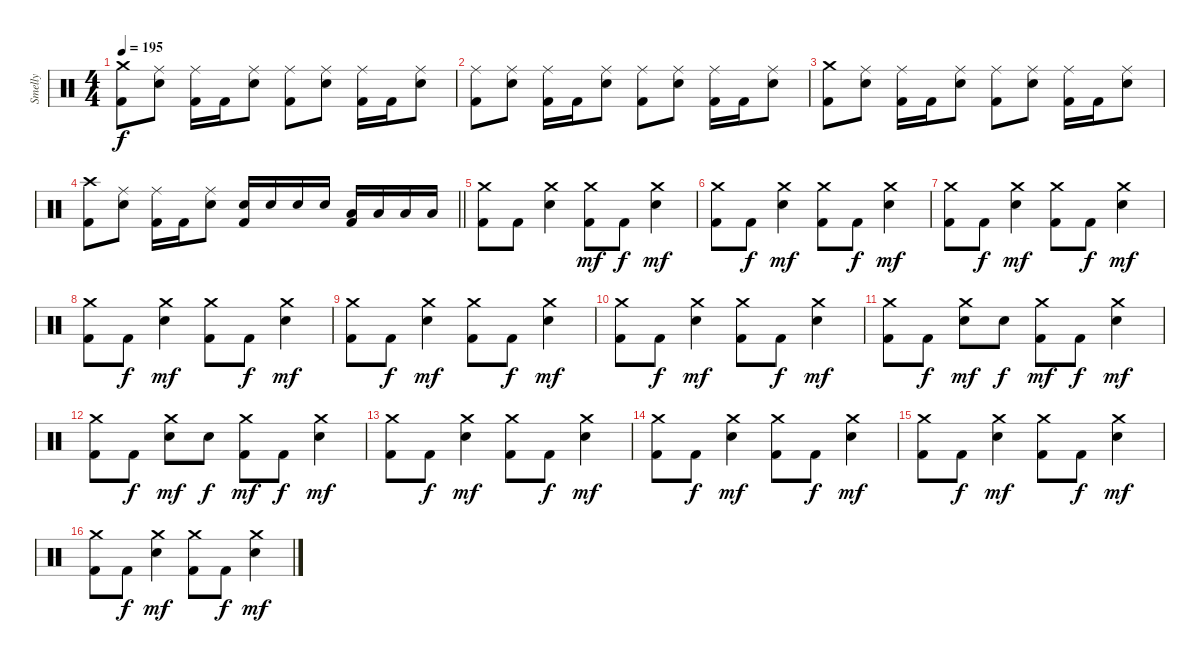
\track ("Smelly" "Smelly") {instrument percussion}
\staff {score}
\articulation defaults
\ts (4 4)
\tempo 195
\clef neutral
\ks c
("Crash medium (hit)" "Kick (hit) 2").8{dy f} ("Ride (middle)" "Electric Snare (hit)").8 ("Ride (middle)" "Kick (hit) 2").16 "Kick (hit) 2".16 ("Ride (middle)" "Electric Snare (hit)").8 ("Ride (middle)" "Kick (hit) 2").8 ("Ride (middle)" "Electric Snare (hit)").8 ("Ride (middle)" "Kick (hit) 2").16 "Kick (hit) 2".16 ("Ride (middle)" "Electric Snare (hit)").8 |
("Ride (middle)" "Kick (hit) 2").8 ("Ride (middle)" "Electric Snare (hit)").8 ("Ride (middle)" "Kick (hit) 2").16 "Kick (hit) 2".16 ("Ride (middle)" "Electric Snare (hit)").8 ("Ride (middle)" "Kick (hit) 2").8 ("Ride (middle)" "Electric Snare (hit)").8 ("Ride (middle)" "Kick (hit) 2").16 "Kick (hit) 2".16 ("Ride (middle)" "Electric Snare (hit)").8 |
("Crash medium (hit)" "Kick (hit) 2").8 ("Ride (middle)" "Electric Snare (hit)").8 ("Ride (middle)" "Kick (hit) 2").16 "Kick (hit) 2".16 ("Ride (middle)" "Electric Snare (hit)").8 ("Ride (middle)" "Kick (hit) 2").8 ("Ride (middle)" "Electric Snare (hit)").8 ("Ride (middle)" "Kick (hit) 2").16 "Kick (hit) 2".16 ("Ride (middle)" "Electric Snare (hit)").8 |
\barLineRight lightlight
("Crash high (hit)" "Kick (hit) 2").8 ("Ride (middle)" "Electric Snare (hit)").8 ("Ride (middle)" "Kick (hit) 2").16 "Kick (hit) 2".16 ("Ride (middle)" "Electric Snare (hit)").8 ("Electric Snare (hit)" "Kick (hit) 2").16 "Electric Snare (hit)".16 "Electric Snare (hit)".16 "Electric Snare (hit)".16 ("Low Tom (hit)" "Kick (hit) 2").16 "Low Tom (hit)".16 "Low Floor Tom (hit)".16 "Low Floor Tom (hit)".16 |
\section ("" "")
("Crash medium (hit)" "Kick (hit) 2").8 "Kick (hit) 2".8 ("Crash medium (hit)" "Electric Snare (hit)").4 ("Crash medium (hit)" "Kick (hit) 2").8{dy mf} "Kick (hit) 2".8{dy f} ("Crash medium (hit)" "Electric Snare (hit)").4{dy mf} |
("Crash medium (hit)" "Kick (hit) 2").8 "Kick (hit) 2".8{dy f} ("Crash medium (hit)" "Electric Snare (hit)").4{dy mf} ("Crash medium (hit)" "Kick (hit) 2").8 "Kick (hit) 2".8{dy f} ("Crash medium (hit)" "Electric Snare (hit)").4{dy mf} |
("Crash medium (hit)" "Kick (hit) 2").8 "Kick (hit) 2".8{dy f} ("Crash medium (hit)" "Electric Snare (hit)").4{dy mf} ("Crash medium (hit)" "Kick (hit) 2").8 "Kick (hit) 2".8{dy f} ("Crash medium (hit)" "Electric Snare (hit)").4{dy mf} |
("Crash medium (hit)" "Kick (hit) 2").8 "Kick (hit) 2".8{dy f} ("Crash medium (hit)" "Electric Snare (hit)").4{dy mf} ("Crash medium (hit)" "Kick (hit) 2").8 "Kick (hit) 2".8{dy f} ("Crash medium (hit)" "Electric Snare (hit)").4{dy mf} |
("Crash medium (hit)" "Kick (hit) 2").8 "Kick (hit) 2".8{dy f} ("Crash medium (hit)" "Electric Snare (hit)").4{dy mf} ("Crash medium (hit)" "Kick (hit) 2").8 "Kick (hit) 2".8{dy f} ("Crash medium (hit)" "Electric Snare (hit)").4{dy mf} |
("Crash medium (hit)" "Kick (hit) 2").8 "Kick (hit) 2".8{dy f} ("Crash medium (hit)" "Electric Snare (hit)").4{dy mf} ("Crash medium (hit)" "Kick (hit) 2").8 "Kick (hit) 2".8{dy f} ("Crash medium (hit)" "Electric Snare (hit)").4{dy mf} |
("Crash medium (hit)" "Kick (hit) 2").8 "Kick (hit) 2".8{dy f} ("Crash medium (hit)" "Electric Snare (hit)").8{dy mf} "Electric Snare (hit)".8{dy f} ("Crash medium (hit)" "Kick (hit) 2").8{dy mf} "Kick (hit) 2".8{dy f} ("Crash medium (hit)" "Electric Snare (hit)").4{dy mf} |
("Crash medium (hit)" "Kick (hit) 2").8 "Kick (hit) 2".8{dy f} ("Crash medium (hit)" "Electric Snare (hit)").8{dy mf} "Electric Snare (hit)".8{dy f} ("Crash medium (hit)" "Kick (hit) 2").8{dy mf} "Kick (hit) 2".8{dy f} ("Crash medium (hit)" "Electric Snare (hit)").4{dy mf} |
("Crash medium (hit)" "Kick (hit) 2").8 "Kick (hit) 2".8{dy f} ("Crash medium (hit)" "Electric Snare (hit)").4{dy mf} ("Crash medium (hit)" "Kick (hit) 2").8 "Kick (hit) 2".8{dy f} ("Crash medium (hit)" "Electric Snare (hit)").4{dy mf} |
("Crash medium (hit)" "Kick (hit) 2").8 "Kick (hit) 2".8{dy f} ("Crash medium (hit)" "Electric Snare (hit)").4{dy mf} ("Crash medium (hit)" "Kick (hit) 2").8 "Kick (hit) 2".8{dy f} ("Crash medium (hit)" "Electric Snare (hit)").4{dy mf} |
("Crash medium (hit)" "Kick (hit) 2").8 "Kick (hit) 2".8{dy f} ("Crash medium (hit)" "Electric Snare (hit)").4{dy mf} ("Crash medium (hit)" "Kick (hit) 2").8 "Kick (hit) 2".8{dy f} ("Crash medium (hit)" "Electric Snare (hit)").4{dy mf} |
("Crash medium (hit)" "Kick (hit) 2").8 "Kick (hit) 2".8{dy f} ("Crash medium (hit)" "Electric Snare (hit)").4{dy mf} ("Crash medium (hit)" "Kick (hit) 2").8 "Kick (hit) 2".8{dy f} ("Crash medium (hit)" "Electric Snare (hit)").4{dy mf}
